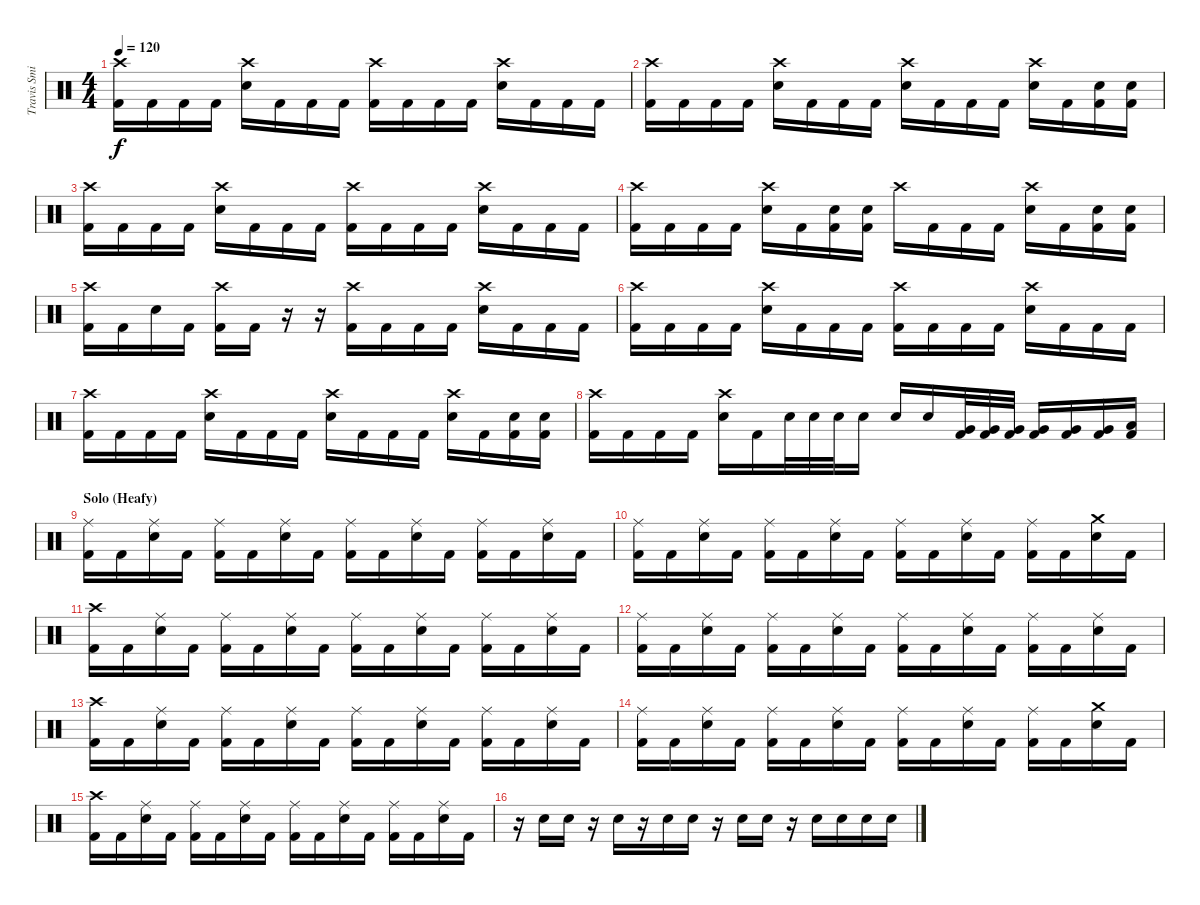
\track ("Travis Smith" "Travis Smi") {instrument percussion}
\staff {score}
\articulation defaults
\ts (4 4)
\tempo 120
\clef neutral
\ks c
("Crash high (hit)" "Kick (hit) 2").16{dy f} "Kick (hit) 2".16 "Kick (hit) 2".16 "Kick (hit) 2".16 ("Crash high (hit)" "Electric Snare (hit)").16 "Kick (hit) 2".16 "Kick (hit) 2".16 "Kick (hit) 2".16 ("Crash high (hit)" "Kick (hit) 2").16 "Kick (hit) 2".16 "Kick (hit) 2".16 "Kick (hit) 2".16 ("Crash high (hit)" "Electric Snare (hit)").16 "Kick (hit) 2".16 "Kick (hit) 2".16 "Kick (hit) 2".16 |
("Crash high (hit)" "Kick (hit) 2").16 "Kick (hit) 2".16 "Kick (hit) 2".16 "Kick (hit) 2".16 ("Crash high (hit)" "Electric Snare (hit)").16 "Kick (hit) 2".16 "Kick (hit) 2".16 "Kick (hit) 2".16 ("Crash high (hit)" "Electric Snare (hit)").16 "Kick (hit) 2".16 "Kick (hit) 2".16 "Kick (hit) 2".16 ("Crash high (hit)" "Electric Snare (hit)").16 "Kick (hit) 2".16 ("Electric Snare (hit)" "Kick (hit) 2").16 ("Electric Snare (hit)" "Kick (hit) 2").16 |
("Crash high (hit)" "Kick (hit) 2").16 "Kick (hit) 2".16 "Kick (hit) 2".16 "Kick (hit) 2".16 ("Crash high (hit)" "Electric Snare (hit)").16 "Kick (hit) 2".16 "Kick (hit) 2".16 "Kick (hit) 2".16 ("Crash high (hit)" "Kick (hit) 2").16 "Kick (hit) 2".16 "Kick (hit) 2".16 "Kick (hit) 2".16 ("Crash high (hit)" "Electric Snare (hit)").16 "Kick (hit) 2".16 "Kick (hit) 2".16 "Kick (hit) 2".16 |
("Crash high (hit)" "Kick (hit) 2").16 "Kick (hit) 2".16 "Kick (hit) 2".16 "Kick (hit) 2".16 ("Crash high (hit)" "Electric Snare (hit)").16 "Kick (hit) 2".16 ("Electric Snare (hit)" "Kick (hit) 2").16 ("Electric Snare (hit)" "Kick (hit) 2").16 "Crash high (hit)".16 "Kick (hit) 2".16 "Kick (hit) 2".16 "Kick (hit) 2".16 ("Crash high (hit)" "Electric Snare (hit)").16 "Kick (hit) 2".16 ("Electric Snare (hit)" "Kick (hit) 2").16 ("Electric Snare (hit)" "Kick (hit) 2").16 |
("Crash high (hit)" "Kick (hit) 2").16 "Kick (hit) 2".16 "Electric Snare (hit)".16 "Kick (hit) 2".16 ("Crash high (hit)" "Kick (hit) 2").16 "Kick (hit) 2".16 r.16 r.16 ("Crash high (hit)" "Kick (hit) 2").16 "Kick (hit) 2".16 "Kick (hit) 2".16 "Kick (hit) 2".16 ("Crash high (hit)" "Electric Snare (hit)").16 "Kick (hit) 2".16 "Kick (hit) 2".16 "Kick (hit) 2".16 |
("Crash high (hit)" "Kick (hit) 2").16 "Kick (hit) 2".16 "Kick (hit) 2".16 "Kick (hit) 2".16 ("Crash high (hit)" "Electric Snare (hit)").16 "Kick (hit) 2".16 "Kick (hit) 2".16 "Kick (hit) 2".16 ("Crash high (hit)" "Kick (hit) 2").16 "Kick (hit) 2".16 "Kick (hit) 2".16 "Kick (hit) 2".16 ("Crash high (hit)" "Electric Snare (hit)").16 "Kick (hit) 2".16 "Kick (hit) 2".16 "Kick (hit) 2".16 |
("Crash high (hit)" "Kick (hit) 2").16 "Kick (hit) 2".16 "Kick (hit) 2".16 "Kick (hit) 2".16 ("Crash high (hit)" "Electric Snare (hit)").16 "Kick (hit) 2".16 "Kick (hit) 2".16 "Kick (hit) 2".16 ("Crash high (hit)" "Electric Snare (hit)").16 "Kick (hit) 2".16 "Kick (hit) 2".16 "Kick (hit) 2".16 ("Crash high (hit)" "Electric Snare (hit)").16 "Kick (hit) 2".16 ("Electric Snare (hit)" "Kick (hit) 2").16 ("Electric Snare (hit)" "Kick (hit) 2").16 |
("Crash high (hit)" "Kick (hit) 2").16 "Kick (hit) 2".16 "Kick (hit) 2".16 "Kick (hit) 2".16 ("Crash high (hit)" "Electric Snare (hit)").16 "Kick (hit) 2".16 "Electric Snare (hit)".32 "Electric Snare (hit)".32 "Electric Snare (hit)".32 "Electric Snare (hit)".16 "Electric Snare (hit)".16 "Electric Snare (hit)".16 ("Very Low Tom (hit)" "Kick (hit) 2").32 ("Very Low Tom (hit)" "Kick (hit) 2").32 ("Very Low Tom (hit)" "Kick (hit) 2").32 ("Very Low Tom (hit)" "Kick (hit) 2").16 ("Very Low Tom (hit)" "Kick (hit) 2").16 ("Very Low Tom (hit)" "Kick (hit) 2").16 ("Low Floor Tom (hit)" "Kick (hit) 2").16 |
\section ("" "Solo (Heafy)")
("Ride (middle)" "Kick (hit) 2").16 "Kick (hit) 2".16 ("Ride (middle)" "Electric Snare (hit)").16 "Kick (hit) 2".16 ("Ride (middle)" "Kick (hit) 2").16 "Kick (hit) 2".16 ("Ride (middle)" "Electric Snare (hit)").16 "Kick (hit) 2".16 ("Ride (middle)" "Kick (hit) 2").16 "Kick (hit) 2".16 ("Ride (middle)" "Electric Snare (hit)").16 "Kick (hit) 2".16 ("Ride (middle)" "Kick (hit) 2").16 "Kick (hit) 2".16 ("Ride (middle)" "Electric Snare (hit)").16 "Kick (hit) 2".16 |
("Ride (middle)" "Kick (hit) 2").16 "Kick (hit) 2".16 ("Ride (middle)" "Electric Snare (hit)").16 "Kick (hit) 2".16 ("Ride (middle)" "Kick (hit) 2").16 "Kick (hit) 2".16 ("Ride (middle)" "Electric Snare (hit)").16 "Kick (hit) 2".16 ("Ride (middle)" "Kick (hit) 2").16 "Kick (hit) 2".16 ("Ride (middle)" "Electric Snare (hit)").16 "Kick (hit) 2".16 ("Ride (middle)" "Kick (hit) 2").16 "Kick (hit) 2".16 ("Crash medium (hit)" "Electric Snare (hit)").16 "Kick (hit) 2".16 |
("Crash high (hit)" "Kick (hit) 2").16 "Kick (hit) 2".16 ("Ride (middle)" "Electric Snare (hit)").16 "Kick (hit) 2".16 ("Ride (middle)" "Kick (hit) 2").16 "Kick (hit) 2".16 ("Ride (middle)" "Electric Snare (hit)").16 "Kick (hit) 2".16 ("Ride (middle)" "Kick (hit) 2").16 "Kick (hit) 2".16 ("Ride (middle)" "Electric Snare (hit)").16 "Kick (hit) 2".16 ("Ride (middle)" "Kick (hit) 2").16 "Kick (hit) 2".16 ("Ride (middle)" "Electric Snare (hit)").16 "Kick (hit) 2".16 |
("Ride (middle)" "Kick (hit) 2").16 "Kick (hit) 2".16 ("Ride (middle)" "Electric Snare (hit)").16 "Kick (hit) 2".16 ("Ride (middle)" "Kick (hit) 2").16 "Kick (hit) 2".16 ("Ride (middle)" "Electric Snare (hit)").16 "Kick (hit) 2".16 ("Ride (middle)" "Kick (hit) 2").16 "Kick (hit) 2".16 ("Ride (middle)" "Electric Snare (hit)").16 "Kick (hit) 2".16 ("Ride (middle)" "Kick (hit) 2").16 "Kick (hit) 2".16 ("Ride (middle)" "Electric Snare (hit)").16 "Kick (hit) 2".16 |
("Crash high (hit)" "Kick (hit) 2").16 "Kick (hit) 2".16 ("Ride (middle)" "Electric Snare (hit)").16 "Kick (hit) 2".16 ("Ride (middle)" "Kick (hit) 2").16 "Kick (hit) 2".16 ("Ride (middle)" "Electric Snare (hit)").16 "Kick (hit) 2".16 ("Ride (middle)" "Kick (hit) 2").16 "Kick (hit) 2".16 ("Ride (middle)" "Electric Snare (hit)").16 "Kick (hit) 2".16 ("Ride (middle)" "Kick (hit) 2").16 "Kick (hit) 2".16 ("Ride (middle)" "Electric Snare (hit)").16 "Kick (hit) 2".16 |
("Ride (middle)" "Kick (hit) 2").16 "Kick (hit) 2".16 ("Ride (middle)" "Electric Snare (hit)").16 "Kick (hit) 2".16 ("Ride (middle)" "Kick (hit) 2").16 "Kick (hit) 2".16 ("Ride (middle)" "Electric Snare (hit)").16 "Kick (hit) 2".16 ("Ride (middle)" "Kick (hit) 2").16 "Kick (hit) 2".16 ("Ride (middle)" "Electric Snare (hit)").16 "Kick (hit) 2".16 ("Ride (middle)" "Kick (hit) 2").16 "Kick (hit) 2".16 ("Crash medium (hit)" "Electric Snare (hit)").16 "Kick (hit) 2".16 |
("Crash high (hit)" "Kick (hit) 2").16 "Kick (hit) 2".16 ("Ride (middle)" "Electric Snare (hit)").16 "Kick (hit) 2".16 ("Ride (middle)" "Kick (hit) 2").16 "Kick (hit) 2".16 ("Ride (middle)" "Electric Snare (hit)").16 "Kick (hit) 2".16 ("Ride (middle)" "Kick (hit) 2").16 "Kick (hit) 2".16 ("Ride (middle)" "Electric Snare (hit)").16 "Kick (hit) 2".16 ("Ride (middle)" "Kick (hit) 2").16 "Kick (hit) 2".16 ("Ride (middle)" "Electric Snare (hit)").16 "Kick (hit) 2".16 |
r.16 "Electric Snare (hit)".16 "Electric Snare (hit)".16 r.16 "Electric Snare (hit)".16 r.16 "Electric Snare (hit)".16 "Electric Snare (hit)".16 r.16 "Electric Snare (hit)".16 "Electric Snare (hit)".16 r.16 "Electric Snare (hit)".16 "Electric Snare (hit)".16 "Electric Snare (hit)".16 "Electric Snare (hit)".16
